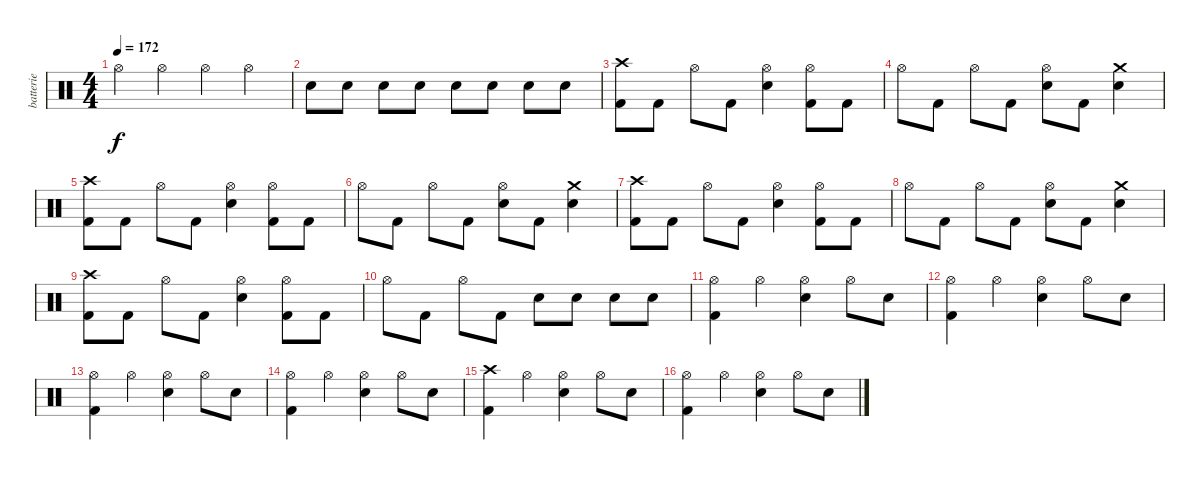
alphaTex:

\track ("batterie" "batterie") {instrument percussion}
\staff {score}
\articulation defaults
\ts (4 4)
\tempo 172
\clef neutral
\ks c "Hi-Hat (open)".4{dy f} "Hi-Hat (open)".4 "Hi-Hat (open)".4 "Hi-Hat (open)".4
|
"Electric Snare (hit)".8 "Electric Snare (hit)".8 "Electric Snare (hit)".8 "Electric Snare (hit)".8 "Electric Snare (hit)".8 "Electric Snare (hit)".8 "Electric Snare (hit)".8 "Electric Snare (hit)".8 |
("Crash high (hit)" "Kick (hit) 2").8 "Kick (hit) 2".8 "Hi-Hat (open)".8 "Kick (hit) 2".8 ("Hi-Hat (open)" "Electric Snare (hit)").4 ("Hi-Hat (open)" "Kick (hit) 2").8 "Kick (hit) 2".8 |
"Hi-Hat (open)".8 "Kick (hit) 2".8 "Hi-Hat (open)".8 "Kick (hit) 2".8 ("Hi-Hat (open)" "Electric Snare (hit)").8 "Kick (hit) 2".8 ("Electric Snare (hit)" "Crash medium (hit)").4 |
("Crash high (hit)" "Kick (hit) 2").8 "Kick (hit) 2".8 "Hi-Hat (open)".8 "Kick (hit) 2".8 ("Hi-Hat (open)" "Electric Snare (hit)").4 ("Hi-Hat (open)" "Kick (hit) 2").8 "Kick (hit) 2".8 |
"Hi-Hat (open)".8 "Kick (hit) 2".8 "Hi-Hat (open)".8 "Kick (hit) 2".8 ("Hi-Hat (open)" "Electric Snare (hit)").8 "Kick (hit) 2".8 ("Electric Snare (hit)" "Crash medium (hit)").4 |
("Crash high (hit)" "Kick (hit) 2").8 "Kick (hit) 2".8 "Hi-Hat (open)".8 "Kick (hit) 2".8 ("Hi-Hat (open)" "Electric Snare (hit)").4 ("Hi-Hat (open)" "Kick (hit) 2").8 "Kick (hit) 2".8 |
"Hi-Hat (open)".8 "Kick (hit) 2".8 "Hi-Hat (open)".8 "Kick (hit) 2".8 ("Hi-Hat (open)" "Electric Snare (hit)").8 "Kick (hit) 2".8 ("Electric Snare (hit)" "Crash medium (hit)").4 |
("Crash high (hit)" "Kick (hit) 2").8 "Kick (hit) 2".8 "Hi-Hat (open)".8 "Kick (hit) 2".8 ("Hi-Hat (open)" "Electric Snare (hit)").4 ("Hi-Hat (open)" "Kick (hit) 2").8 "Kick (hit) 2".8 |
"Hi-Hat (open)".8 "Kick (hit) 2".8 "Hi-Hat (open)".8 "Kick (hit) 2".8 "Electric Snare (hit)".8 "Electric Snare (hit)".8 "Electric Snare (hit)".8 "Electric Snare (hit)".8 |
("Hi-Hat (open)" "Kick (hit) 2").4 "Hi-Hat (open)".4 ("Electric Snare (hit)" "Hi-Hat (open)").4 "Hi-Hat (open)".8 "Electric Snare (hit)".8 |
("Hi-Hat (open)" "Kick (hit) 2").4 "Hi-Hat (open)".4 ("Electric Snare (hit)" "Hi-Hat (open)").4 "Hi-Hat (open)".8 "Electric Snare (hit)".8 |
("Hi-Hat (open)" "Kick (hit) 2").4 "Hi-Hat (open)".4 ("Electric Snare (hit)" "Hi-Hat (open)").4 "Hi-Hat (open)".8 "Electric Snare (hit)".8 |
("Hi-Hat (open)" "Kick (hit) 2").4 "Hi-Hat (open)".4 ("Electric Snare (hit)" "Hi-Hat (open)").4 "Hi-Hat (open)".8 "Electric Snare (hit)".8 |
("Crash high (hit)" "Kick (hit) 2").4 "Hi-Hat (open)".4 ("Electric Snare (hit)" "Hi-Hat (open)").4 "Hi-Hat (open)".8 "Electric Snare (hit)".8 |
("Hi-Hat (open)" "Kick (hit) 2").4 "Hi-Hat (open)".4 ("Electric Snare (hit)" "Hi-Hat (open)").4 "Hi-Hat (open)".8 "Electric Snare (hit)".8
